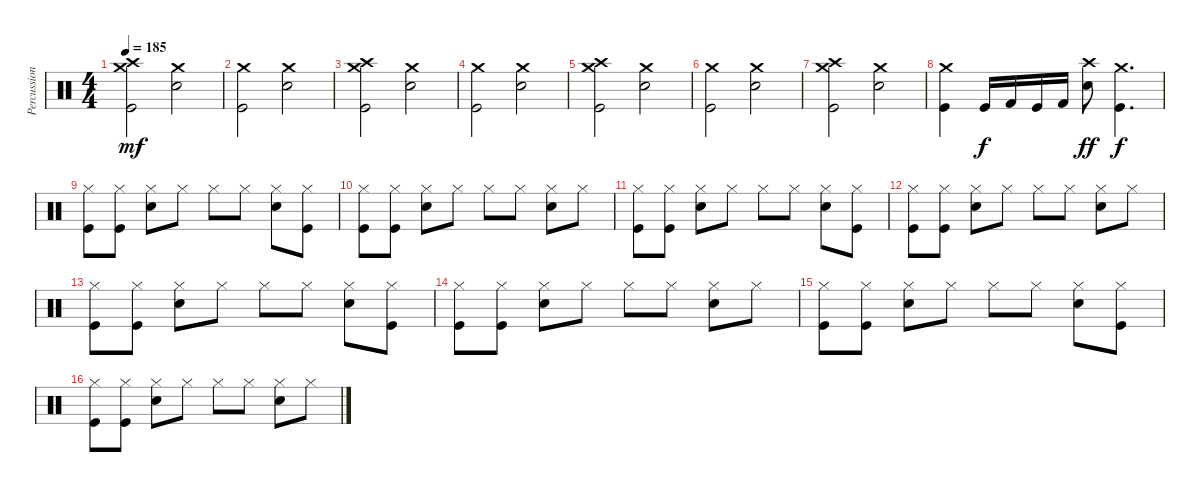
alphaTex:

\track ("Percussions" "Percussion") {instrument percussion}
\staff {score}
\articulation defaults
\ts (4 4)
\tempo 185
\clef neutral
\ks c
("Kick (hit)" "Crash medium (hit)" "Crash high (hit)").2{dy mf} ("Electric Snare (hit)" "Crash medium (hit)").2 |
("Kick (hit)" "Crash medium (hit)").2 ("Electric Snare (hit)" "Crash medium (hit)").2 |
("Kick (hit)" "Crash medium (hit)" "Crash high (hit)").2 ("Electric Snare (hit)" "Crash medium (hit)").2 |
("Kick (hit)" "Crash medium (hit)").2 ("Electric Snare (hit)" "Crash medium (hit)").2 |
("Kick (hit)" "Crash medium (hit)" "Crash high (hit)").2 ("Electric Snare (hit)" "Crash medium (hit)").2 |
("Kick (hit)" "Crash medium (hit)").2 ("Electric Snare (hit)" "Crash medium (hit)").2 |
("Kick (hit)" "Crash medium (hit)" "Crash high (hit)").2 ("Electric Snare (hit)" "Crash medium (hit)").2 |
("Kick (hit)" "Crash medium (hit)").4 "Kick (hit)".16{dy f} "Kick (hit) 2".16 "Kick (hit)".16 "Kick (hit) 2".16 ("Electric Snare (hit)" "Crash high (hit)").8{dy ff} ("Kick (hit)" "Crash medium (hit)").4{d dy f} |
("Kick (hit)" "Hi-Hat (closed)").8 ("Kick (hit)" "Hi-Hat (closed)").8 ("Electric Snare (hit)" "Hi-Hat (closed)").8 "Hi-Hat (closed)".8 "Hi-Hat (closed)".8 "Hi-Hat (closed)".8 ("Electric Snare (hit)" "Hi-Hat (closed)").8 ("Kick (hit)" "Hi-Hat (closed)").8 |
("Kick (hit)" "Hi-Hat (closed)").8 ("Kick (hit)" "Hi-Hat (closed)").8 ("Electric Snare (hit)" "Hi-Hat (closed)").8 "Hi-Hat (closed)".8 "Hi-Hat (closed)".8 "Hi-Hat (closed)".8 ("Electric Snare (hit)" "Hi-Hat (closed)").8 "Hi-Hat (closed)".8 |
("Kick (hit)" "Hi-Hat (closed)").8 ("Kick (hit)" "Hi-Hat (closed)").8 ("Electric Snare (hit)" "Hi-Hat (closed)").8 "Hi-Hat (closed)".8 "Hi-Hat (closed)".8 "Hi-Hat (closed)".8 ("Electric Snare (hit)" "Hi-Hat (closed)").8 ("Kick (hit)" "Hi-Hat (closed)").8 |
("Kick (hit)" "Hi-Hat (closed)").8 ("Kick (hit)" "Hi-Hat (closed)").8 ("Electric Snare (hit)" "Hi-Hat (closed)").8 "Hi-Hat (closed)".8 "Hi-Hat (closed)".8 "Hi-Hat (closed)".8 ("Electric Snare (hit)" "Hi-Hat (closed)").8 "Hi-Hat (closed)".8 |
("Kick (hit)" "Hi-Hat (closed)").8 ("Kick (hit)" "Hi-Hat (closed)").8 ("Electric Snare (hit)" "Hi-Hat (closed)").8 "Hi-Hat (closed)".8 "Hi-Hat (closed)".8 "Hi-Hat (closed)".8 ("Electric Snare (hit)" "Hi-Hat (closed)").8 ("Kick (hit)" "Hi-Hat (closed)").8 |
("Kick (hit)" "Hi-Hat (closed)").8 ("Kick (hit)" "Hi-Hat (closed)").8 ("Electric Snare (hit)" "Hi-Hat (closed)").8 "Hi-Hat (closed)".8 "Hi-Hat (closed)".8 "Hi-Hat (closed)".8 ("Electric Snare (hit)" "Hi-Hat (closed)").8 "Hi-Hat (closed)".8 |
("Kick (hit)" "Hi-Hat (closed)").8 ("Kick (hit)" "Hi-Hat (closed)").8 ("Electric Snare (hit)" "Hi-Hat (closed)").8 "Hi-Hat (closed)".8 "Hi-Hat (closed)".8 "Hi-Hat (closed)".8 ("Electric Snare (hit)" "Hi-Hat (closed)").8 ("Kick (hit)" "Hi-Hat (closed)").8 |
("Kick (hit)" "Hi-Hat (closed)").8 ("Kick (hit)" "Hi-Hat (closed)").8 ("Electric Snare (hit)" "Hi-Hat (closed)").8 "Hi-Hat (closed)".8 "Hi-Hat (closed)".8 "Hi-Hat (closed)".8 ("Electric Snare (hit)" "Hi-Hat (closed)").8 "Hi-Hat (closed)".8
